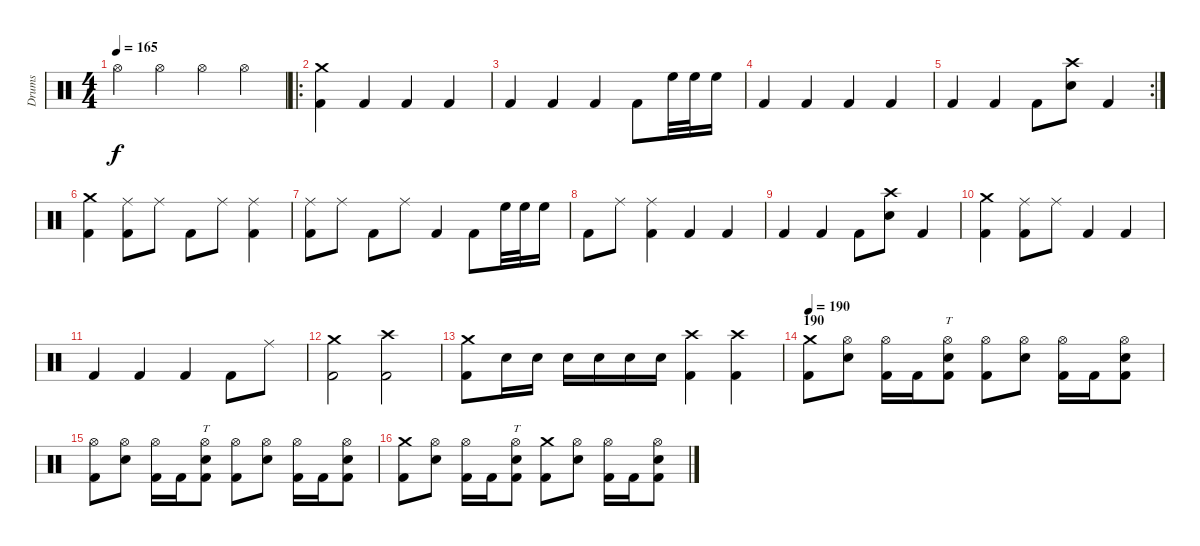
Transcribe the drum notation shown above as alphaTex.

\track ("Drums" "Drums") {instrument percussion}
\staff {score}
\articulation defaults
\ts (4 4)
\tempo 165
\clef neutral
\ks c "Hi-Hat (open)".4{dy f} "Hi-Hat (open)".4 "Hi-Hat (open)".4 "Hi-Hat (open)".4
|
\ro
("Crash medium (hit)" "Kick (hit) 2").4 "Kick (hit) 2".4 "Kick (hit) 2".4 "Kick (hit) 2".4 |
"Kick (hit) 2".4 "Kick (hit) 2".4 "Kick (hit) 2".4 "Kick (hit) 2".8 "High Floor Tom (hit)".32 "High Floor Tom (hit)".32 "High Floor Tom (hit)".16 |
"Kick (hit) 2".4 "Kick (hit) 2".4 "Kick (hit) 2".4 "Kick (hit) 2".4 |
\rc 2 "Kick (hit) 2".4 "Kick (hit) 2".4 "Kick (hit) 2".8
("Crash high (hit)" "Electric Snare (hit)").8 "Kick (hit) 2".4 |
("Crash medium (hit)" "Kick (hit) 2").4 ("Ride (middle)" "Kick (hit) 2").8 "Ride (middle)".8 "Kick (hit) 2".8 "Ride (middle)".8 ("Ride (middle)" "Kick (hit) 2").4 |
("Ride (middle)" "Kick (hit) 2").8 "Ride (middle)".8 "Kick (hit) 2".8 "Ride (middle)".8 "Kick (hit) 2".4 "Kick (hit) 2".8 "High Floor Tom (hit)".32 "High Floor Tom (hit)".32 "High Floor Tom (hit)".16 |
"Kick (hit) 2".8 "Ride (middle)".8 ("Ride (middle)" "Kick (hit) 2").4 "Kick (hit) 2".4 "Kick (hit) 2".4 |
"Kick (hit) 2".4 "Kick (hit) 2".4 "Kick (hit) 2".8 ("Crash high (hit)" "Electric Snare (hit)").8 "Kick (hit) 2".4 |
("Crash medium (hit)" "Kick (hit) 2").4 ("Ride (middle)" "Kick (hit) 2").8 "Ride (middle)".8 "Kick (hit) 2".4 "Kick (hit) 2".4 |
"Kick (hit) 2".4 "Kick (hit) 2".4 "Kick (hit) 2".4 "Kick (hit) 2".8 "Ride (middle)".8 |
("Crash medium (hit)" "Kick (hit) 2").2 ("Crash high (hit)" "Kick (hit) 2").2 |
("Crash medium (hit)" "Kick (hit) 2").8 "Electric Snare (hit)".16 "Electric Snare (hit)".16 "Electric Snare (hit)".16 "Electric Snare (hit)".16 "Electric Snare (hit)".16 "Electric Snare (hit)".16 ("Crash high (hit)" "Kick (hit) 2").4 ("Crash high (hit)" "Kick (hit) 2").4 |
\section ("" "190")
\tempo 180
\tempo 190
("Crash medium (hit)" "Kick (hit) 2").8 ("Hi-Hat (open)" "Electric Snare (hit)").8 ("Hi-Hat (open)" "Kick (hit) 2").16 "Kick (hit) 2".16 ("Hi-Hat (open)" "Electric Snare (hit)" "Kick (hit) 2").8{tt} ("Hi-Hat (open)" "Kick (hit) 2").8 ("Hi-Hat (open)" "Electric Snare (hit)").8 ("Hi-Hat (open)" "Kick (hit) 2").16 "Kick (hit) 2".16 ("Hi-Hat (open)" "Electric Snare (hit)" "Kick (hit) 2").8 |
("Hi-Hat (open)" "Kick (hit) 2").8 ("Hi-Hat (open)" "Electric Snare (hit)").8 ("Hi-Hat (open)" "Kick (hit) 2").16 "Kick (hit) 2".16 ("Hi-Hat (open)" "Electric Snare (hit)" "Kick (hit) 2").8{tt} ("Hi-Hat (open)" "Kick (hit) 2").8 ("Hi-Hat (open)" "Electric Snare (hit)").8 ("Hi-Hat (open)" "Kick (hit) 2").16 "Kick (hit) 2".16 ("Hi-Hat (open)" "Electric Snare (hit)" "Kick (hit) 2").8 |
("Crash medium (hit)" "Kick (hit) 2").8 ("Hi-Hat (open)" "Electric Snare (hit)").8 ("Hi-Hat (open)" "Kick (hit) 2").16 "Kick (hit) 2".16 ("Hi-Hat (open)" "Electric Snare (hit)" "Kick (hit) 2").8{tt} ("Crash medium (hit)" "Kick (hit) 2").8 ("Hi-Hat (open)" "Electric Snare (hit)").8 ("Hi-Hat (open)" "Kick (hit) 2").16 "Kick (hit) 2".16 ("Hi-Hat (open)" "Electric Snare (hit)" "Kick (hit) 2").8
